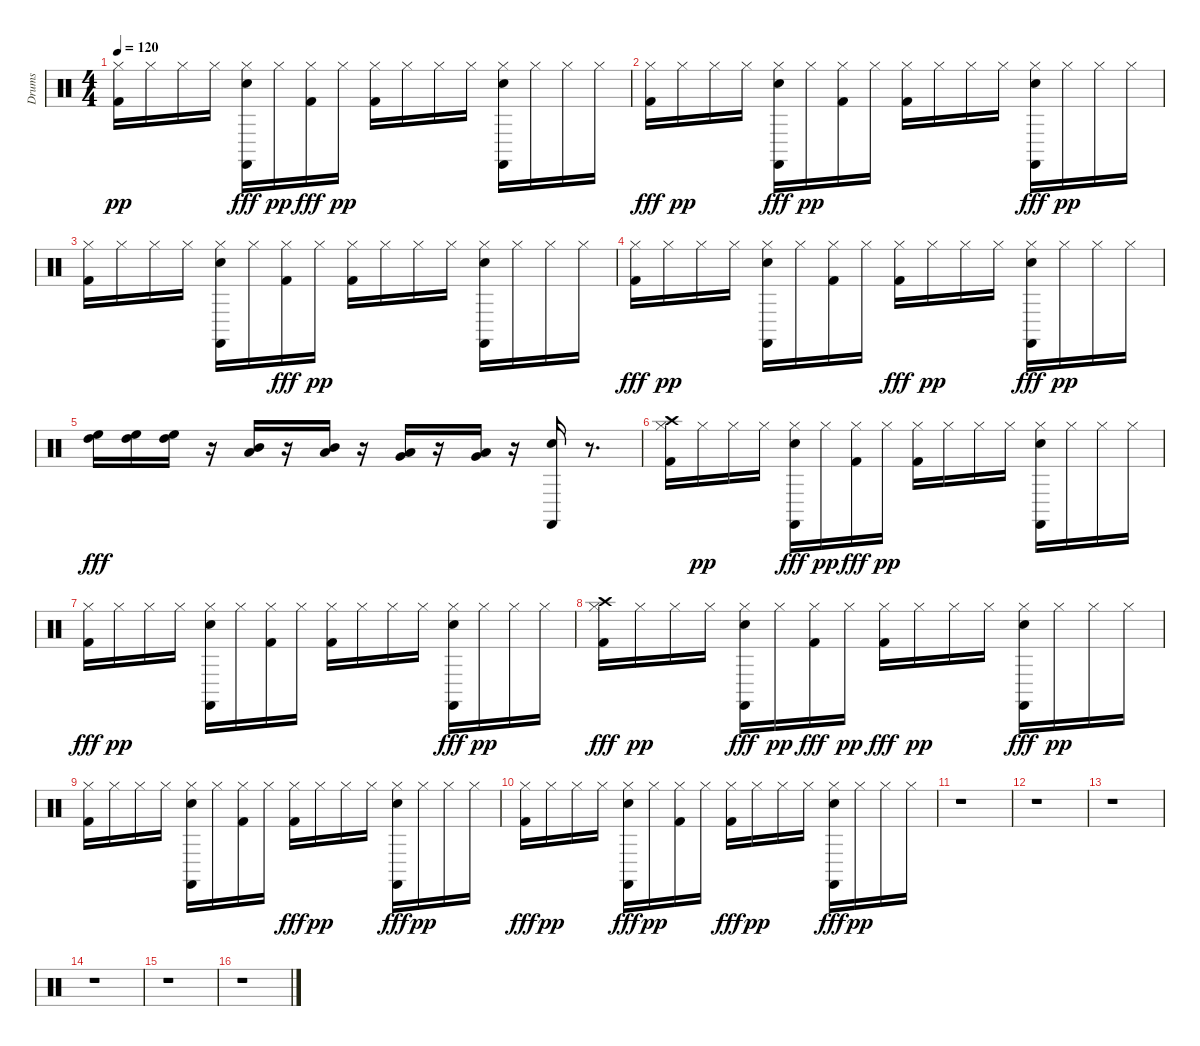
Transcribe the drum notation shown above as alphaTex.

\track ("Drums" "Drums") {instrument percussion}
\staff {score}
\articulation defaults
\ts (4 4)
\tempo 120
\clef neutral
\ks c
("Kick (hit) 2" "Hi-Hat (closed)").16{dy pp} "Hi-Hat (closed)".16 "Hi-Hat (closed)".16 "Hi-Hat (closed)".16 ("Hi-Hat (closed)" "Castanets (hit)" "Snare (hit) 2").16{dy fff} "Hi-Hat (closed)".16{dy pp} ("Hi-Hat (closed)" "Kick (hit) 2").16{dy fff} "Hi-Hat (closed)".16{dy pp} ("Kick (hit) 2" "Hi-Hat (closed)").16 "Hi-Hat (closed)".16 "Hi-Hat (closed)".16 "Hi-Hat (closed)".16 ("Snare (hit) 2" "Castanets (hit)" "Hi-Hat (closed)").16 "Hi-Hat (closed)".16 "Hi-Hat (closed)".16 "Hi-Hat (closed)".16 |
("Hi-Hat (closed)" "Kick (hit) 2").16{dy fff} "Hi-Hat (closed)".16{dy pp} "Hi-Hat (closed)".16 "Hi-Hat (closed)".16 ("Snare (hit) 2" "Hi-Hat (closed)" "Castanets (hit)").16{dy fff} "Hi-Hat (closed)".16{dy pp} ("Kick (hit) 2" "Hi-Hat (closed)").16 "Hi-Hat (closed)".16 ("Kick (hit) 2" "Hi-Hat (closed)").16 "Hi-Hat (closed)".16 "Hi-Hat (closed)".16 "Hi-Hat (closed)".16 ("Castanets (hit)" "Hi-Hat (closed)" "Snare (hit) 2").16{dy fff} "Hi-Hat (closed)".16{dy pp} "Hi-Hat (closed)".16 "Hi-Hat (closed)".16 |
("Kick (hit) 2" "Hi-Hat (closed)").16 "Hi-Hat (closed)".16 "Hi-Hat (closed)".16 "Hi-Hat (closed)".16 ("Snare (hit) 2" "Castanets (hit)" "Hi-Hat (closed)").16 "Hi-Hat (closed)".16 ("Hi-Hat (closed)" "Kick (hit) 2").16{dy fff} "Hi-Hat (closed)".16{dy pp} ("Kick (hit) 2" "Hi-Hat (closed)").16 "Hi-Hat (closed)".16 "Hi-Hat (closed)".16 "Hi-Hat (closed)".16 ("Castanets (hit)" "Snare (hit) 2" "Hi-Hat (closed)").16 "Hi-Hat (closed)".16 "Hi-Hat (closed)".16 "Hi-Hat (closed)".16 |
("Hi-Hat (closed)" "Kick (hit) 2").16{dy fff} "Hi-Hat (closed)".16{dy pp} "Hi-Hat (closed)".16 "Hi-Hat (closed)".16 ("Castanets (hit)" "Snare (hit) 2" "Hi-Hat (closed)").16 "Hi-Hat (closed)".16 ("Kick (hit) 2" "Hi-Hat (closed)").16 "Hi-Hat (closed)".16 ("Hi-Hat (closed)" "Kick (hit) 2").16{dy fff} "Hi-Hat (closed)".16{dy pp} "Hi-Hat (closed)".16 "Hi-Hat (closed)".16 ("Hi-Hat (closed)" "Castanets (hit)" "Snare (hit) 2").16{dy fff} "Hi-Hat (closed)".16{dy pp} "Hi-Hat (closed)".16 "Hi-Hat (closed)".16 |
("High Tom (hit)" "High Floor Tom (hit)").16{dy fff} ("High Floor Tom (hit)" "High Tom (hit)").16 ("High Floor Tom (hit)" "High Tom (hit)").16 r.16 ("Low Tom (hit)" "Mid Tom (hit)").16 r.16 ("Mid Tom (hit)" "Low Tom (hit)").16 r.16 ("Very Low Tom (hit)" "Low Floor Tom (hit)").16 r.16 ("Very Low Tom (hit)" "Low Floor Tom (hit)").16 r.16 ("Castanets (hit)" "Snare (hit) 2").16 r.8{d} |
("Kick (hit) 2" "Hi-Hat (closed)" "Crash high (hit)").16 "Hi-Hat (closed)".16{dy pp} "Hi-Hat (closed)".16 "Hi-Hat (closed)".16 ("Hi-Hat (closed)" "Castanets (hit)" "Snare (hit) 2").16{dy fff} "Hi-Hat (closed)".16{dy pp} ("Hi-Hat (closed)" "Kick (hit) 2").16{dy fff} "Hi-Hat (closed)".16{dy pp} ("Kick (hit) 2" "Hi-Hat (closed)").16 "Hi-Hat (closed)".16 "Hi-Hat (closed)".16 "Hi-Hat (closed)".16 ("Snare (hit) 2" "Castanets (hit)" "Hi-Hat (closed)").16 "Hi-Hat (closed)".16 "Hi-Hat (closed)".16 "Hi-Hat (closed)".16 |
("Hi-Hat (closed)" "Kick (hit) 2").16{dy fff} "Hi-Hat (closed)".16{dy pp} "Hi-Hat (closed)".16 "Hi-Hat (closed)".16 ("Castanets (hit)" "Snare (hit) 2" "Hi-Hat (closed)").16 "Hi-Hat (closed)".16 ("Kick (hit) 2" "Hi-Hat (closed)").16 "Hi-Hat (closed)".16 ("Kick (hit) 2" "Hi-Hat (closed)").16 "Hi-Hat (closed)".16 "Hi-Hat (closed)".16 "Hi-Hat (closed)".16 ("Hi-Hat (closed)" "Castanets (hit)" "Snare (hit) 2").16{dy fff} "Hi-Hat (closed)".16{dy pp} "Hi-Hat (closed)".16 "Hi-Hat (closed)".16 |
("Crash high (hit)" "Hi-Hat (closed)" "Kick (hit) 2").16{dy fff} "Hi-Hat (closed)".16{dy pp} "Hi-Hat (closed)".16 "Hi-Hat (closed)".16 ("Snare (hit) 2" "Hi-Hat (closed)" "Castanets (hit)").16{dy fff} "Hi-Hat (closed)".16{dy pp} ("Hi-Hat (closed)" "Kick (hit) 2").16{dy fff} "Hi-Hat (closed)".16{dy pp} ("Hi-Hat (closed)" "Kick (hit) 2").16{dy fff} "Hi-Hat (closed)".16{dy pp} "Hi-Hat (closed)".16 "Hi-Hat (closed)".16 ("Hi-Hat (closed)" "Castanets (hit)" "Snare (hit) 2").16{dy fff} "Hi-Hat (closed)".16{dy pp} "Hi-Hat (closed)".16 "Hi-Hat (closed)".16 |
("Kick (hit) 2" "Hi-Hat (closed)").16 "Hi-Hat (closed)".16 "Hi-Hat (closed)".16 "Hi-Hat (closed)".16 ("Castanets (hit)" "Snare (hit) 2" "Hi-Hat (closed)").16 "Hi-Hat (closed)".16 ("Kick (hit) 2" "Hi-Hat (closed)").16 "Hi-Hat (closed)".16 ("Hi-Hat (closed)" "Kick (hit) 2").16{dy fff} "Hi-Hat (closed)".16{dy pp} "Hi-Hat (closed)".16 "Hi-Hat (closed)".16 ("Castanets (hit)" "Hi-Hat (closed)" "Snare (hit) 2").16{dy fff} "Hi-Hat (closed)".16{dy pp} "Hi-Hat (closed)".16 "Hi-Hat (closed)".16 |
("Hi-Hat (closed)" "Kick (hit) 2").16{dy fff} "Hi-Hat (closed)".16{dy pp} "Hi-Hat (closed)".16 "Hi-Hat (closed)".16 ("Snare (hit) 2" "Hi-Hat (closed)" "Castanets (hit)").16{dy fff} "Hi-Hat (closed)".16{dy pp} ("Kick (hit) 2" "Hi-Hat (closed)").16 "Hi-Hat (closed)".16 ("Hi-Hat (closed)" "Kick (hit) 2").16{dy fff} "Hi-Hat (closed)".16{dy pp} "Hi-Hat (closed)".16 "Hi-Hat (closed)".16 ("Snare (hit) 2" "Hi-Hat (closed)" "Castanets (hit)").16{dy fff} "Hi-Hat (closed)".16{dy pp} "Hi-Hat (closed)".16 "Hi-Hat (closed)".16 |
r.1 |
r.1 |
r.1 |
r.1 |
r.1 |
r.1
